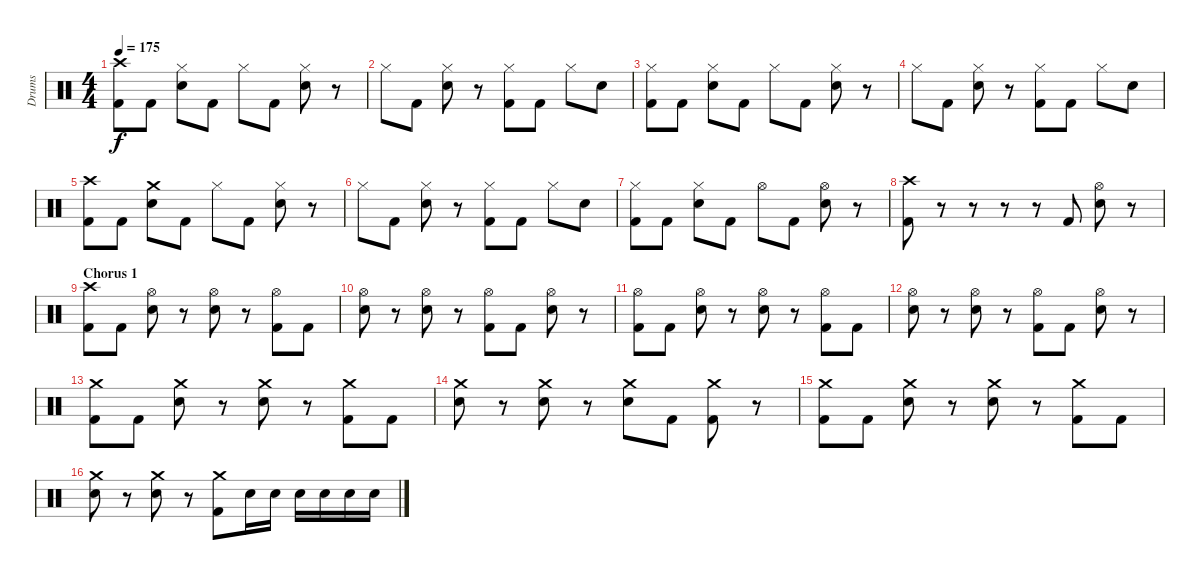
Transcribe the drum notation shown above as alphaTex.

\track ("Drums" "Drums") {instrument percussion}
\staff {score}
\articulation defaults
\ts (4 4)
\tempo 175
\clef neutral
\ks c
("Crash high (hit)" "Kick (hit) 2").8{dy f} "Kick (hit) 2".8 ("Hi-Hat (closed)" "Snare (hit) 2").8 "Kick (hit) 2".8 "Hi-Hat (closed)".8 "Kick (hit) 2".8 ("Hi-Hat (closed)" "Snare (hit) 2").8 r.8 |
"Hi-Hat (closed)".8 "Kick (hit) 2".8 ("Hi-Hat (closed)" "Snare (hit) 2").8 r.8 ("Hi-Hat (closed)" "Kick (hit) 2").8 "Kick (hit) 2".8 "Hi-Hat (closed)".8 "Snare (hit) 2".8 |
("Hi-Hat (closed)" "Kick (hit) 2").8 "Kick (hit) 2".8 ("Hi-Hat (closed)" "Snare (hit) 2").8 "Kick (hit) 2".8 "Hi-Hat (closed)".8 "Kick (hit) 2".8 ("Hi-Hat (closed)" "Snare (hit) 2").8 r.8 |
"Hi-Hat (closed)".8 "Kick (hit) 2".8 ("Hi-Hat (closed)" "Snare (hit) 2").8 r.8 ("Hi-Hat (closed)" "Kick (hit) 2").8 "Kick (hit) 2".8 "Hi-Hat (closed)".8 "Snare (hit) 2".8 |
("Crash high (hit)" "Kick (hit) 2").8 "Kick (hit) 2".8 ("Crash medium (hit)" "Snare (hit) 2").8 "Kick (hit) 2".8 "Hi-Hat (closed)".8 "Kick (hit) 2".8 ("Hi-Hat (closed)" "Snare (hit) 2").8 r.8 |
"Hi-Hat (closed)".8 "Kick (hit) 2".8 ("Hi-Hat (closed)" "Snare (hit) 2").8 r.8 ("Hi-Hat (closed)" "Kick (hit) 2").8 "Kick (hit) 2".8 "Hi-Hat (closed)".8 "Snare (hit) 2".8 |
("Hi-Hat (closed)" "Kick (hit) 2").8 "Kick (hit) 2".8 ("Hi-Hat (closed)" "Snare (hit) 2").8 "Kick (hit) 2".8 "Hi-Hat (open)".8 "Kick (hit) 2".8 ("Hi-Hat (open)" "Snare (hit) 2").8 r.8 |
("Crash high (hit)" "Kick (hit) 2").8 r.8 r.8 r.8 r.8 "Kick (hit) 2".8 ("Hi-Hat (open)" "Snare (hit) 2").8 r.8 |
\section ("" "Chorus 1")
("Crash high (hit)" "Kick (hit) 2").8 "Kick (hit) 2".8 ("Hi-Hat (open)" "Snare (hit) 2").8 r.8 ("Hi-Hat (open)" "Snare (hit) 2").8 r.8 ("Hi-Hat (open)" "Kick (hit) 2").8 "Kick (hit) 2".8 |
("Hi-Hat (open)" "Snare (hit) 2").8 r.8 ("Hi-Hat (open)" "Snare (hit) 2").8 r.8 ("Hi-Hat (open)" "Kick (hit) 2").8 "Kick (hit) 2".8 ("Hi-Hat (open)" "Snare (hit) 2").8 r.8 |
("Hi-Hat (open)" "Kick (hit) 2").8 "Kick (hit) 2".8 ("Hi-Hat (open)" "Snare (hit) 2").8 r.8 ("Hi-Hat (open)" "Snare (hit) 2").8 r.8 ("Hi-Hat (open)" "Kick (hit) 2").8 "Kick (hit) 2".8 |
("Hi-Hat (open)" "Snare (hit) 2").8 r.8 ("Hi-Hat (open)" "Snare (hit) 2").8 r.8 ("Hi-Hat (open)" "Kick (hit) 2").8 "Kick (hit) 2".8 ("Hi-Hat (open)" "Snare (hit) 2").8 r.8 |
("Crash medium (hit)" "Kick (hit) 2").8 "Kick (hit) 2".8 ("Crash medium (hit)" "Snare (hit) 2").8 r.8 ("Crash medium (hit)" "Snare (hit) 2").8 r.8 ("Crash medium (hit)" "Kick (hit) 2").8 "Kick (hit) 2".8 |
("Crash medium (hit)" "Snare (hit) 2").8 r.8 ("Crash medium (hit)" "Snare (hit) 2").8 r.8 ("Crash medium (hit)" "Snare (hit) 2").8 "Kick (hit) 2".8 ("Crash medium (hit)" "Kick (hit) 2").8 r.8 |
("Crash medium (hit)" "Kick (hit) 2").8 "Kick (hit) 2".8 ("Crash medium (hit)" "Snare (hit) 2").8 r.8 ("Crash medium (hit)" "Snare (hit) 2").8 r.8 ("Crash medium (hit)" "Kick (hit) 2").8 "Kick (hit) 2".8 |
("Crash medium (hit)" "Snare (hit) 2").8 r.8 ("Crash medium (hit)" "Snare (hit) 2").8 r.8 ("Crash medium (hit)" "Kick (hit) 2").8 "Snare (hit) 2".16 "Snare (hit) 2".16 "Snare (hit) 2".16 "Snare (hit) 2".16 "Snare (hit) 2".16 "Snare (hit) 2".16
